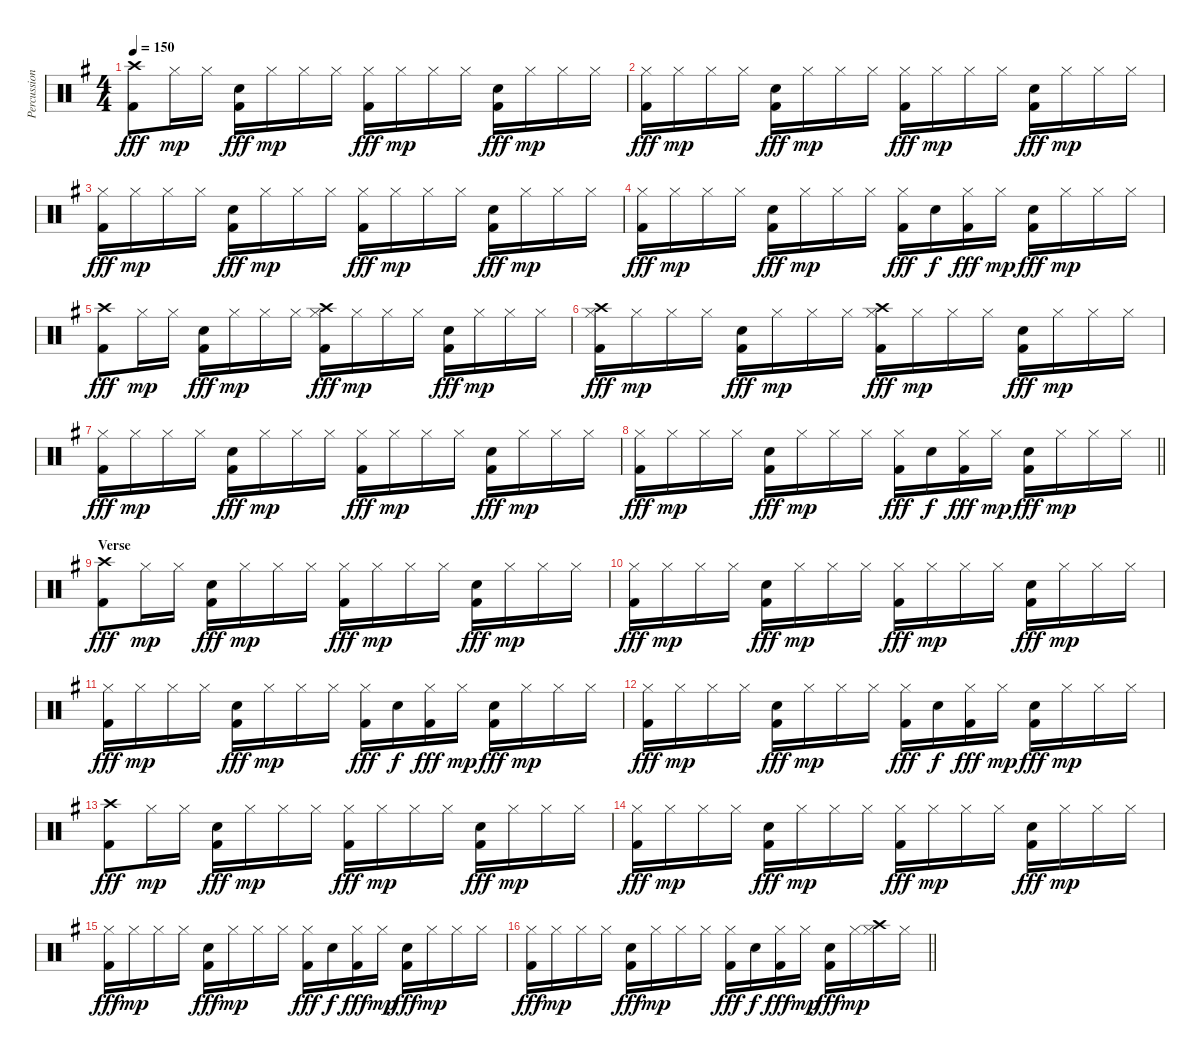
\track ("Percussion" "Percussion") {instrument percussion}
\staff {score}
\articulation defaults
\ts (4 4)
\tempo 150
\clef neutral
\ks eminor
("Crash high (hit)" "Kick (hit) 2").8{dy fff} "Hi-Hat (closed)".16{dy mp} "Hi-Hat (closed)".16 ("Electric Snare (hit)" "Kick (hit) 2").16{dy fff} "Hi-Hat (closed)".16{dy mp} "Hi-Hat (closed)".16 "Hi-Hat (closed)".16 ("Hi-Hat (closed)" "Kick (hit) 2").16{dy fff} "Hi-Hat (closed)".16{dy mp} "Hi-Hat (closed)".16 "Hi-Hat (closed)".16 ("Electric Snare (hit)" "Kick (hit) 2").16{dy fff} "Hi-Hat (closed)".16{dy mp} "Hi-Hat (closed)".16 "Hi-Hat (closed)".16 |
("Hi-Hat (closed)" "Kick (hit) 2").16{dy fff} "Hi-Hat (closed)".16{dy mp} "Hi-Hat (closed)".16 "Hi-Hat (closed)".16 ("Electric Snare (hit)" "Kick (hit) 2").16{dy fff} "Hi-Hat (closed)".16{dy mp} "Hi-Hat (closed)".16 "Hi-Hat (closed)".16 ("Hi-Hat (closed)" "Kick (hit) 2").16{dy fff} "Hi-Hat (closed)".16{dy mp} "Hi-Hat (closed)".16 "Hi-Hat (closed)".16 ("Electric Snare (hit)" "Kick (hit) 2").16{dy fff} "Hi-Hat (closed)".16{dy mp} "Hi-Hat (closed)".16 "Hi-Hat (closed)".16 |
("Hi-Hat (closed)" "Kick (hit) 2").16{dy fff} "Hi-Hat (closed)".16{dy mp} "Hi-Hat (closed)".16 "Hi-Hat (closed)".16 ("Electric Snare (hit)" "Kick (hit) 2").16{dy fff} "Hi-Hat (closed)".16{dy mp} "Hi-Hat (closed)".16 "Hi-Hat (closed)".16 ("Hi-Hat (closed)" "Kick (hit) 2").16{dy fff} "Hi-Hat (closed)".16{dy mp} "Hi-Hat (closed)".16 "Hi-Hat (closed)".16 ("Electric Snare (hit)" "Kick (hit) 2").16{dy fff} "Hi-Hat (closed)".16{dy mp} "Hi-Hat (closed)".16 "Hi-Hat (closed)".16 |
("Hi-Hat (closed)" "Kick (hit) 2").16{dy fff} "Hi-Hat (closed)".16{dy mp} "Hi-Hat (closed)".16 "Hi-Hat (closed)".16 ("Electric Snare (hit)" "Kick (hit) 2").16{dy fff} "Hi-Hat (closed)".16{dy mp} "Hi-Hat (closed)".16 "Hi-Hat (closed)".16 ("Hi-Hat (closed)" "Kick (hit) 2").16{dy fff} "Electric Snare (hit)".16{dy f} ("Hi-Hat (closed)" "Kick (hit) 2").16{dy fff} "Hi-Hat (closed)".16{dy mp} ("Electric Snare (hit)" "Kick (hit) 2").16{dy fff} "Hi-Hat (closed)".16{dy mp} "Hi-Hat (closed)".16 "Hi-Hat (closed)".16 |
("Crash high (hit)" "Kick (hit) 2").8{dy fff} "Hi-Hat (closed)".16{dy mp} "Hi-Hat (closed)".16 ("Electric Snare (hit)" "Kick (hit) 2").16{dy fff} "Hi-Hat (closed)".16{dy mp} "Hi-Hat (closed)".16 "Hi-Hat (closed)".16 ("Hi-Hat (closed)" "Crash high (hit)" "Kick (hit) 2").16{dy fff} "Hi-Hat (closed)".16{dy mp} "Hi-Hat (closed)".16 "Hi-Hat (closed)".16 ("Electric Snare (hit)" "Kick (hit) 2").16{dy fff} "Hi-Hat (closed)".16{dy mp} "Hi-Hat (closed)".16 "Hi-Hat (closed)".16 |
("Hi-Hat (closed)" "Crash high (hit)" "Kick (hit) 2").16{dy fff} "Hi-Hat (closed)".16{dy mp} "Hi-Hat (closed)".16 "Hi-Hat (closed)".16 ("Electric Snare (hit)" "Kick (hit) 2").16{dy fff} "Hi-Hat (closed)".16{dy mp} "Hi-Hat (closed)".16 "Hi-Hat (closed)".16 ("Hi-Hat (closed)" "Crash high (hit)" "Kick (hit) 2").16{dy fff} "Hi-Hat (closed)".16{dy mp} "Hi-Hat (closed)".16 "Hi-Hat (closed)".16 ("Electric Snare (hit)" "Kick (hit) 2").16{dy fff} "Hi-Hat (closed)".16{dy mp} "Hi-Hat (closed)".16 "Hi-Hat (closed)".16 |
("Hi-Hat (closed)" "Kick (hit) 2").16{dy fff} "Hi-Hat (closed)".16{dy mp} "Hi-Hat (closed)".16 "Hi-Hat (closed)".16 ("Electric Snare (hit)" "Kick (hit) 2").16{dy fff} "Hi-Hat (closed)".16{dy mp} "Hi-Hat (closed)".16 "Hi-Hat (closed)".16 ("Hi-Hat (closed)" "Kick (hit) 2").16{dy fff} "Hi-Hat (closed)".16{dy mp} "Hi-Hat (closed)".16 "Hi-Hat (closed)".16 ("Electric Snare (hit)" "Kick (hit) 2").16{dy fff} "Hi-Hat (closed)".16{dy mp} "Hi-Hat (closed)".16 "Hi-Hat (closed)".16 |
\barLineRight lightlight
("Hi-Hat (closed)" "Kick (hit) 2").16{dy fff} "Hi-Hat (closed)".16{dy mp} "Hi-Hat (closed)".16 "Hi-Hat (closed)".16 ("Electric Snare (hit)" "Kick (hit) 2").16{dy fff} "Hi-Hat (closed)".16{dy mp} "Hi-Hat (closed)".16 "Hi-Hat (closed)".16 ("Hi-Hat (closed)" "Kick (hit) 2").16{dy fff} "Electric Snare (hit)".16{dy f} ("Hi-Hat (closed)" "Kick (hit) 2").16{dy fff} "Hi-Hat (closed)".16{dy mp} ("Electric Snare (hit)" "Kick (hit) 2").16{dy fff} "Hi-Hat (closed)".16{dy mp} "Hi-Hat (closed)".16 "Hi-Hat (closed)".16 |
\section ("" "Verse")
("Crash high (hit)" "Kick (hit) 2").8{dy fff} "Hi-Hat (closed)".16{dy mp} "Hi-Hat (closed)".16 ("Electric Snare (hit)" "Kick (hit) 2").16{dy fff} "Hi-Hat (closed)".16{dy mp} "Hi-Hat (closed)".16 "Hi-Hat (closed)".16 ("Hi-Hat (closed)" "Kick (hit) 2").16{dy fff} "Hi-Hat (closed)".16{dy mp} "Hi-Hat (closed)".16 "Hi-Hat (closed)".16 ("Electric Snare (hit)" "Kick (hit) 2").16{dy fff} "Hi-Hat (closed)".16{dy mp} "Hi-Hat (closed)".16 "Hi-Hat (closed)".16 |
("Hi-Hat (closed)" "Kick (hit) 2").16{dy fff} "Hi-Hat (closed)".16{dy mp} "Hi-Hat (closed)".16 "Hi-Hat (closed)".16 ("Electric Snare (hit)" "Kick (hit) 2").16{dy fff} "Hi-Hat (closed)".16{dy mp} "Hi-Hat (closed)".16 "Hi-Hat (closed)".16 ("Hi-Hat (closed)" "Kick (hit) 2").16{dy fff} "Hi-Hat (closed)".16{dy mp} "Hi-Hat (closed)".16 "Hi-Hat (closed)".16 ("Electric Snare (hit)" "Kick (hit) 2").16{dy fff} "Hi-Hat (closed)".16{dy mp} "Hi-Hat (closed)".16 "Hi-Hat (closed)".16 |
("Hi-Hat (closed)" "Kick (hit) 2").16{dy fff} "Hi-Hat (closed)".16{dy mp} "Hi-Hat (closed)".16 "Hi-Hat (closed)".16 ("Electric Snare (hit)" "Kick (hit) 2").16{dy fff} "Hi-Hat (closed)".16{dy mp} "Hi-Hat (closed)".16 "Hi-Hat (closed)".16 ("Hi-Hat (closed)" "Kick (hit) 2").16{dy fff} "Electric Snare (hit)".16{dy f} ("Hi-Hat (closed)" "Kick (hit) 2").16{dy fff} "Hi-Hat (closed)".16{dy mp} ("Electric Snare (hit)" "Kick (hit) 2").16{dy fff} "Hi-Hat (closed)".16{dy mp} "Hi-Hat (closed)".16 "Hi-Hat (closed)".16 |
("Hi-Hat (closed)" "Kick (hit) 2").16{dy fff} "Hi-Hat (closed)".16{dy mp} "Hi-Hat (closed)".16 "Hi-Hat (closed)".16 ("Electric Snare (hit)" "Kick (hit) 2").16{dy fff} "Hi-Hat (closed)".16{dy mp} "Hi-Hat (closed)".16 "Hi-Hat (closed)".16 ("Hi-Hat (closed)" "Kick (hit) 2").16{dy fff} "Electric Snare (hit)".16{dy f} ("Hi-Hat (closed)" "Kick (hit) 2").16{dy fff} "Hi-Hat (closed)".16{dy mp} ("Electric Snare (hit)" "Kick (hit) 2").16{dy fff} "Hi-Hat (closed)".16{dy mp} "Hi-Hat (closed)".16 "Hi-Hat (closed)".16 |
("Crash high (hit)" "Kick (hit) 2").8{dy fff} "Hi-Hat (closed)".16{dy mp} "Hi-Hat (closed)".16 ("Electric Snare (hit)" "Kick (hit) 2").16{dy fff} "Hi-Hat (closed)".16{dy mp} "Hi-Hat (closed)".16 "Hi-Hat (closed)".16 ("Hi-Hat (closed)" "Kick (hit) 2").16{dy fff} "Hi-Hat (closed)".16{dy mp} "Hi-Hat (closed)".16 "Hi-Hat (closed)".16 ("Electric Snare (hit)" "Kick (hit) 2").16{dy fff} "Hi-Hat (closed)".16{dy mp} "Hi-Hat (closed)".16 "Hi-Hat (closed)".16 |
("Hi-Hat (closed)" "Kick (hit) 2").16{dy fff} "Hi-Hat (closed)".16{dy mp} "Hi-Hat (closed)".16 "Hi-Hat (closed)".16 ("Electric Snare (hit)" "Kick (hit) 2").16{dy fff} "Hi-Hat (closed)".16{dy mp} "Hi-Hat (closed)".16 "Hi-Hat (closed)".16 ("Hi-Hat (closed)" "Kick (hit) 2").16{dy fff} "Hi-Hat (closed)".16{dy mp} "Hi-Hat (closed)".16 "Hi-Hat (closed)".16 ("Electric Snare (hit)" "Kick (hit) 2").16{dy fff} "Hi-Hat (closed)".16{dy mp} "Hi-Hat (closed)".16 "Hi-Hat (closed)".16 |
("Hi-Hat (closed)" "Kick (hit) 2").16{dy fff} "Hi-Hat (closed)".16{dy mp} "Hi-Hat (closed)".16 "Hi-Hat (closed)".16 ("Electric Snare (hit)" "Kick (hit) 2").16{dy fff} "Hi-Hat (closed)".16{dy mp} "Hi-Hat (closed)".16 "Hi-Hat (closed)".16 ("Hi-Hat (closed)" "Kick (hit) 2").16{dy fff} "Electric Snare (hit)".16{dy f} ("Hi-Hat (closed)" "Kick (hit) 2").16{dy fff} "Hi-Hat (closed)".16{dy mp} ("Electric Snare (hit)" "Kick (hit) 2").16{dy fff} "Hi-Hat (closed)".16{dy mp} "Hi-Hat (closed)".16 "Hi-Hat (closed)".16 |
\barLineRight lightlight
("Hi-Hat (closed)" "Kick (hit) 2").16{dy fff} "Hi-Hat (closed)".16{dy mp} "Hi-Hat (closed)".16 "Hi-Hat (closed)".16 ("Electric Snare (hit)" "Kick (hit) 2").16{dy fff} "Hi-Hat (closed)".16{dy mp} "Hi-Hat (closed)".16 "Hi-Hat (closed)".16 ("Hi-Hat (closed)" "Kick (hit) 2").16{dy fff} "Electric Snare (hit)".16{dy f} ("Hi-Hat (closed)" "Kick (hit) 2").16{dy fff} "Hi-Hat (closed)".16{dy mp} ("Electric Snare (hit)" "Kick (hit) 2").16{dy fff} "Hi-Hat (closed)".16{dy mp} ("Hi-Hat (closed)" "Crash high (hit)").16 "Hi-Hat (closed)".16
